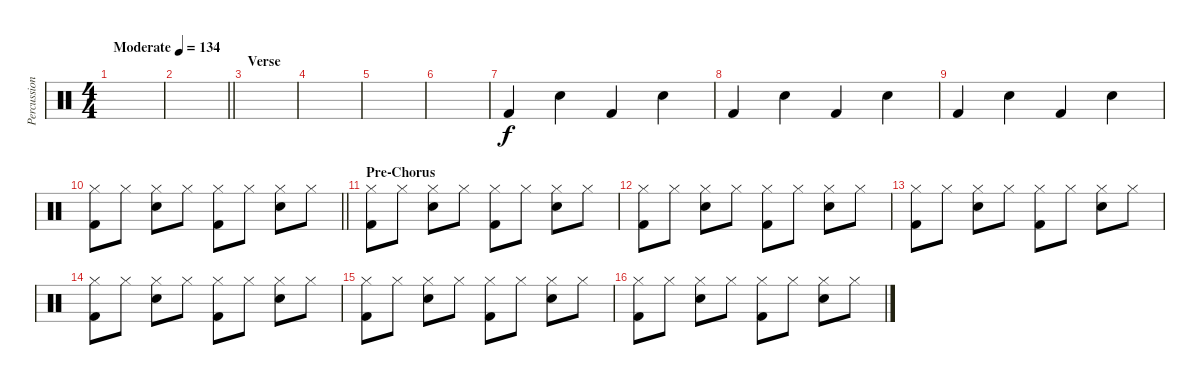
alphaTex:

\track ("Percussion" "Percussion") {instrument percussion}
\staff {score}
\articulation defaults
\ts (4 4)
\tempo (134 "Moderate")
\clef neutral
\ks c
|
\barLineRight lightlight
|
\section ("" "Verse")
|
|
|
|
"Kick (hit) 2".4 "Snare (hit) 2".4 "Kick (hit) 2".4 "Snare (hit) 2".4 |
"Kick (hit) 2".4 "Snare (hit) 2".4 "Kick (hit) 2".4 "Snare (hit) 2".4 |
"Kick (hit) 2".4 "Snare (hit) 2".4 "Kick (hit) 2".4 "Snare (hit) 2".4 |
\barLineRight lightlight
("Hi-Hat (closed)" "Kick (hit) 2").8 "Hi-Hat (closed)".8 ("Hi-Hat (closed)" "Snare (hit) 2").8 "Hi-Hat (closed)".8 ("Hi-Hat (closed)" "Kick (hit) 2").8 "Hi-Hat (closed)".8 ("Hi-Hat (closed)" "Snare (hit) 2").8 "Hi-Hat (closed)".8 |
\section ("" "Pre-Chorus")
("Hi-Hat (closed)" "Kick (hit) 2").8 "Hi-Hat (closed)".8 ("Hi-Hat (closed)" "Snare (hit) 2").8 "Hi-Hat (closed)".8 ("Hi-Hat (closed)" "Kick (hit) 2").8 "Hi-Hat (closed)".8 ("Hi-Hat (closed)" "Snare (hit) 2").8 "Hi-Hat (closed)".8 |
("Hi-Hat (closed)" "Kick (hit) 2").8 "Hi-Hat (closed)".8 ("Hi-Hat (closed)" "Snare (hit) 2").8 "Hi-Hat (closed)".8 ("Hi-Hat (closed)" "Kick (hit) 2").8 "Hi-Hat (closed)".8 ("Hi-Hat (closed)" "Snare (hit) 2").8 "Hi-Hat (closed)".8 |
("Hi-Hat (closed)" "Kick (hit) 2").8 "Hi-Hat (closed)".8 ("Hi-Hat (closed)" "Snare (hit) 2").8 "Hi-Hat (closed)".8 ("Hi-Hat (closed)" "Kick (hit) 2").8 "Hi-Hat (closed)".8 ("Hi-Hat (closed)" "Snare (hit) 2").8 "Hi-Hat (closed)".8 |
("Hi-Hat (closed)" "Kick (hit) 2").8 "Hi-Hat (closed)".8 ("Hi-Hat (closed)" "Snare (hit) 2").8 "Hi-Hat (closed)".8 ("Hi-Hat (closed)" "Kick (hit) 2").8 "Hi-Hat (closed)".8 ("Hi-Hat (closed)" "Snare (hit) 2").8 "Hi-Hat (closed)".8 |
("Hi-Hat (closed)" "Kick (hit) 2").8 "Hi-Hat (closed)".8 ("Hi-Hat (closed)" "Snare (hit) 2").8 "Hi-Hat (closed)".8 ("Hi-Hat (closed)" "Kick (hit) 2").8 "Hi-Hat (closed)".8 ("Hi-Hat (closed)" "Snare (hit) 2").8 "Hi-Hat (closed)".8 |
("Hi-Hat (closed)" "Kick (hit) 2").8 "Hi-Hat (closed)".8 ("Hi-Hat (closed)" "Snare (hit) 2").8 "Hi-Hat (closed)".8 ("Hi-Hat (closed)" "Kick (hit) 2").8 "Hi-Hat (closed)".8 ("Hi-Hat (closed)" "Snare (hit) 2").8 "Hi-Hat (closed)".8
